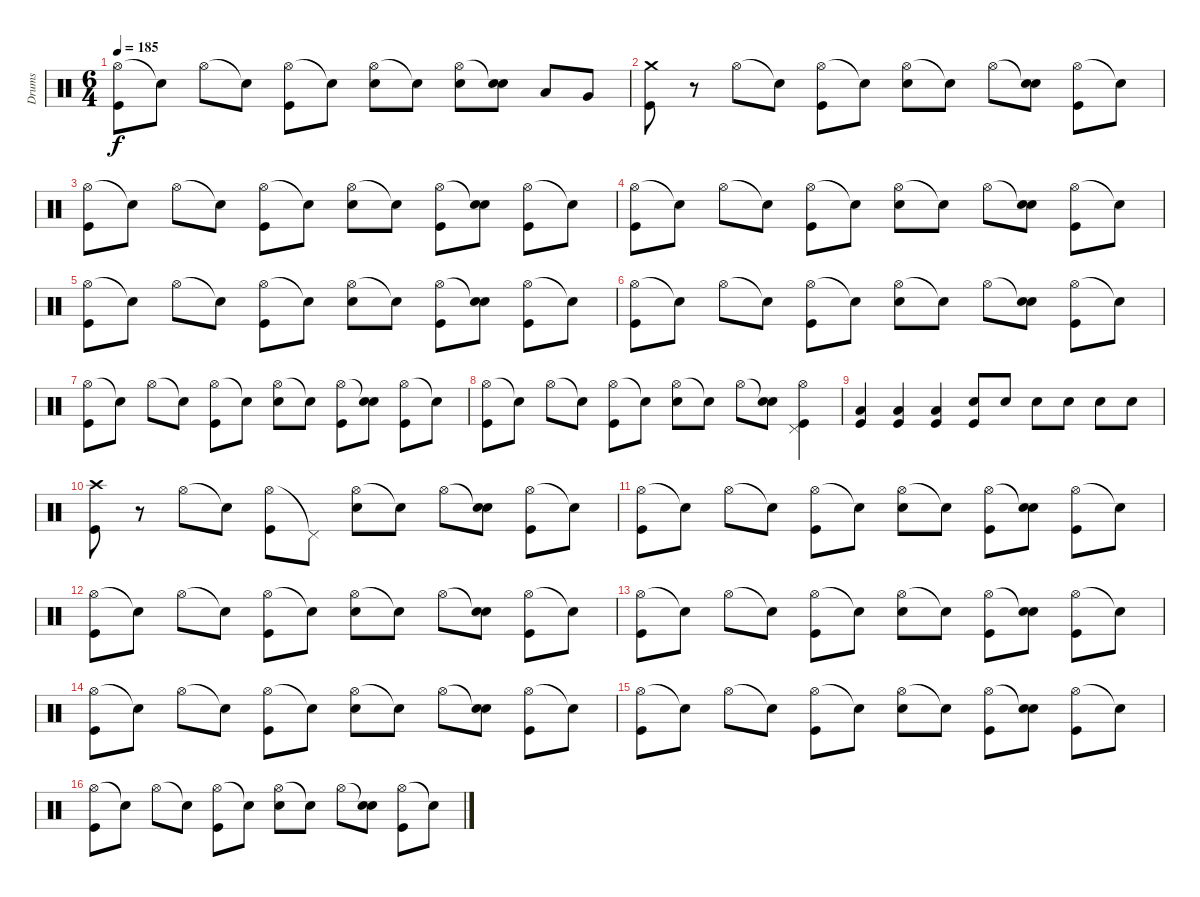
\track ("Drums" "Drums") {instrument percussion}
\staff {score}
\articulation defaults
\ts (6 4)
\tempo 185
\clef neutral
\ks c
("Hi-Hat (open)" "Kick (hit)").8{dy f} "Snare (hit)"{t}.8 "Hi-Hat (open)".8 "Snare (hit)"{t}.8 ("Hi-Hat (open)" "Kick (hit)").8 "Snare (hit)"{t}.8 ("Hi-Hat (open)" "Electric Snare (hit)").8 "Snare (hit)"{t}.8 ("Hi-Hat (open)" "Electric Snare (hit)").8 ("Snare (hit)"{t} "Electric Snare (hit)").8 "Low Tom (hit)".8 "Very Low Tom (hit)".8 |
("Crash medium (hit)" "Kick (hit)").8 r.8 "Hi-Hat (open)".8 "Snare (hit)"{t}.8 ("Hi-Hat (open)" "Kick (hit)").8 "Snare (hit)"{t}.8 ("Hi-Hat (open)" "Electric Snare (hit)").8 "Snare (hit)"{t}.8 "Hi-Hat (open)".8 ("Snare (hit)"{t} "Electric Snare (hit)").8 ("Hi-Hat (open)" "Kick (hit)").8 "Snare (hit)"{t}.8 |
("Hi-Hat (open)" "Kick (hit)").8 "Snare (hit)"{t}.8 "Hi-Hat (open)".8 "Snare (hit)"{t}.8 ("Hi-Hat (open)" "Kick (hit)").8 "Snare (hit)"{t}.8 ("Hi-Hat (open)" "Electric Snare (hit)").8 "Snare (hit)"{t}.8 ("Hi-Hat (open)" "Kick (hit)").8 ("Snare (hit)"{t} "Electric Snare (hit)").8 ("Hi-Hat (open)" "Kick (hit)").8 "Snare (hit)"{t}.8 |
("Hi-Hat (open)" "Kick (hit)").8 "Snare (hit)"{t}.8 "Hi-Hat (open)".8 "Snare (hit)"{t}.8 ("Hi-Hat (open)" "Kick (hit)").8 "Snare (hit)"{t}.8 ("Hi-Hat (open)" "Electric Snare (hit)").8 "Snare (hit)"{t}.8 "Hi-Hat (open)".8 ("Snare (hit)"{t} "Electric Snare (hit)").8 ("Hi-Hat (open)" "Kick (hit)").8 "Snare (hit)"{t}.8 |
("Hi-Hat (open)" "Kick (hit)").8 "Snare (hit)"{t}.8 "Hi-Hat (open)".8 "Snare (hit)"{t}.8 ("Hi-Hat (open)" "Kick (hit)").8 "Snare (hit)"{t}.8 ("Hi-Hat (open)" "Electric Snare (hit)").8 "Snare (hit)"{t}.8 ("Hi-Hat (open)" "Kick (hit)").8 ("Snare (hit)"{t} "Electric Snare (hit)").8 ("Hi-Hat (open)" "Kick (hit)").8 "Snare (hit)"{t}.8 |
("Hi-Hat (open)" "Kick (hit)").8 "Snare (hit)"{t}.8 "Hi-Hat (open)".8 "Snare (hit)"{t}.8 ("Hi-Hat (open)" "Kick (hit)").8 "Snare (hit)"{t}.8 ("Hi-Hat (open)" "Electric Snare (hit)").8 "Snare (hit)"{t}.8 "Hi-Hat (open)".8 ("Snare (hit)"{t} "Electric Snare (hit)").8 ("Hi-Hat (open)" "Kick (hit)").8 "Snare (hit)"{t}.8 |
("Hi-Hat (open)" "Kick (hit)").8 "Snare (hit)"{t}.8 "Hi-Hat (open)".8 "Snare (hit)"{t}.8 ("Hi-Hat (open)" "Kick (hit)").8 "Snare (hit)"{t}.8 ("Hi-Hat (open)" "Electric Snare (hit)").8 "Snare (hit)"{t}.8 ("Hi-Hat (open)" "Kick (hit)").8 ("Snare (hit)"{t} "Electric Snare (hit)").8 ("Hi-Hat (open)" "Kick (hit)").8 "Snare (hit)"{t}.8 |
("Hi-Hat (open)" "Kick (hit)").8 "Snare (hit)"{t}.8 "Hi-Hat (open)".8 "Snare (hit)"{t}.8 ("Hi-Hat (open)" "Kick (hit)").8 "Snare (hit)"{t}.8 ("Hi-Hat (open)" "Electric Snare (hit)").8 "Snare (hit)"{t}.8 "Hi-Hat (open)".8 ("Snare (hit)"{t} "Electric Snare (hit)").8 ("Hi-Hat (open)" "Pedal Hi-Hat (hit)" "Kick (hit)").4 |
("Low Floor Tom (hit)" "Kick (hit)").4 ("Low Floor Tom (hit)" "Kick (hit)").4 ("Low Floor Tom (hit)" "Kick (hit)").4 ("Electric Snare (hit)" "Kick (hit)").8 "Electric Snare (hit)".8 "Electric Snare (hit)".8 "Electric Snare (hit)".8 "Electric Snare (hit)".8 "Electric Snare (hit)".8 |
("Crash high (hit)" "Kick (hit)").8 r.8 "Hi-Hat (open)".8 "Snare (hit)"{t}.8 ("Hi-Hat (open)" "Kick (hit)").8 "Pedal Hi-Hat (hit)"{t}.8 ("Hi-Hat (open)" "Electric Snare (hit)").8 "Snare (hit)"{t}.8 "Hi-Hat (open)".8 ("Snare (hit)"{t} "Electric Snare (hit)").8 ("Hi-Hat (open)" "Kick (hit)").8 "Snare (hit)"{t}.8 |
("Hi-Hat (open)" "Kick (hit)").8 "Snare (hit)"{t}.8 "Hi-Hat (open)".8 "Snare (hit)"{t}.8 ("Hi-Hat (open)" "Kick (hit)").8 "Snare (hit)"{t}.8 ("Hi-Hat (open)" "Electric Snare (hit)").8 "Snare (hit)"{t}.8 ("Hi-Hat (open)" "Kick (hit)").8 ("Snare (hit)"{t} "Electric Snare (hit)").8 ("Hi-Hat (open)" "Kick (hit)").8 "Snare (hit)"{t}.8 |
("Hi-Hat (open)" "Kick (hit)").8 "Snare (hit)"{t}.8 "Hi-Hat (open)".8 "Snare (hit)"{t}.8 ("Hi-Hat (open)" "Kick (hit)").8 "Snare (hit)"{t}.8 ("Hi-Hat (open)" "Electric Snare (hit)").8 "Snare (hit)"{t}.8 "Hi-Hat (open)".8 ("Snare (hit)"{t} "Electric Snare (hit)").8 ("Hi-Hat (open)" "Kick (hit)").8 "Snare (hit)"{t}.8 |
("Hi-Hat (open)" "Kick (hit)").8 "Snare (hit)"{t}.8 "Hi-Hat (open)".8 "Snare (hit)"{t}.8 ("Hi-Hat (open)" "Kick (hit)").8 "Snare (hit)"{t}.8 ("Hi-Hat (open)" "Electric Snare (hit)").8 "Snare (hit)"{t}.8 ("Hi-Hat (open)" "Kick (hit)").8 ("Snare (hit)"{t} "Electric Snare (hit)").8 ("Hi-Hat (open)" "Kick (hit)").8 "Snare (hit)"{t}.8 |
("Hi-Hat (open)" "Kick (hit)").8 "Snare (hit)"{t}.8 "Hi-Hat (open)".8 "Snare (hit)"{t}.8 ("Hi-Hat (open)" "Kick (hit)").8 "Snare (hit)"{t}.8 ("Hi-Hat (open)" "Electric Snare (hit)").8 "Snare (hit)"{t}.8 "Hi-Hat (open)".8 ("Snare (hit)"{t} "Electric Snare (hit)").8 ("Hi-Hat (open)" "Kick (hit)").8 "Snare (hit)"{t}.8 |
("Hi-Hat (open)" "Kick (hit)").8 "Snare (hit)"{t}.8 "Hi-Hat (open)".8 "Snare (hit)"{t}.8 ("Hi-Hat (open)" "Kick (hit)").8 "Snare (hit)"{t}.8 ("Hi-Hat (open)" "Electric Snare (hit)").8 "Snare (hit)"{t}.8 ("Hi-Hat (open)" "Kick (hit)").8 ("Snare (hit)"{t} "Electric Snare (hit)").8 ("Hi-Hat (open)" "Kick (hit)").8 "Snare (hit)"{t}.8 |
("Hi-Hat (open)" "Kick (hit)").8 "Snare (hit)"{t}.8 "Hi-Hat (open)".8 "Snare (hit)"{t}.8 ("Hi-Hat (open)" "Kick (hit)").8 "Snare (hit)"{t}.8 ("Hi-Hat (open)" "Electric Snare (hit)").8 "Snare (hit)"{t}.8 "Hi-Hat (open)".8 ("Snare (hit)"{t} "Electric Snare (hit)").8 ("Hi-Hat (open)" "Kick (hit)").8 "Snare (hit)"{t}.8
